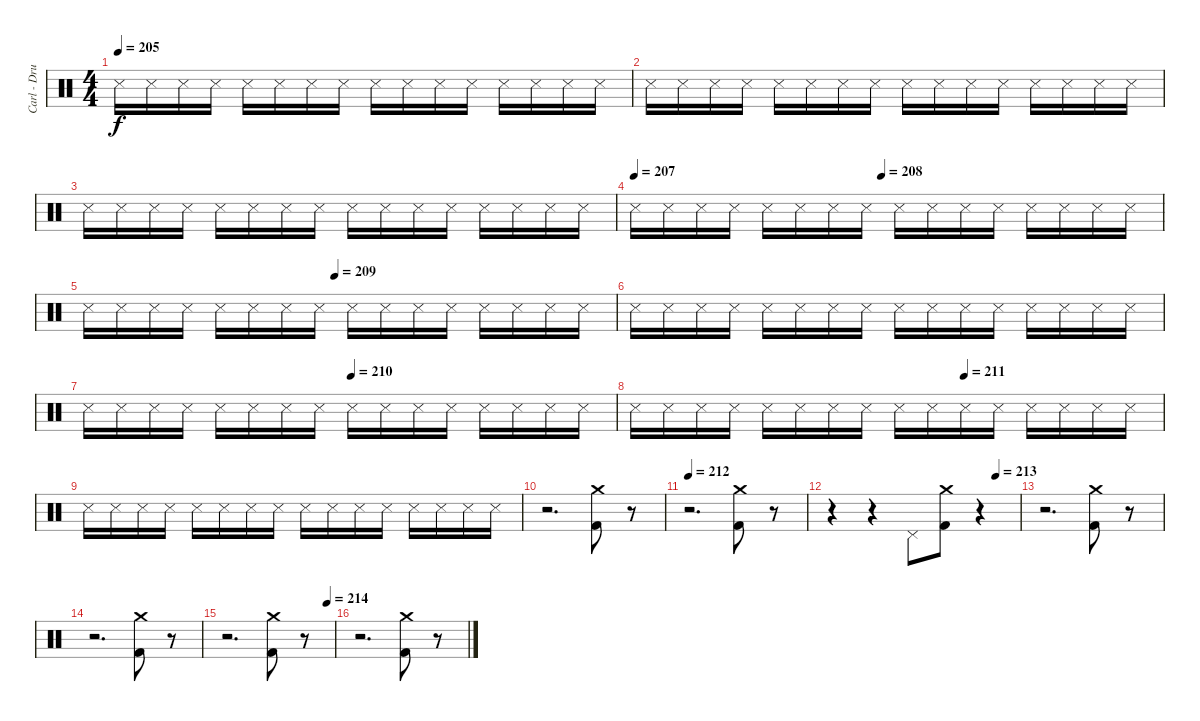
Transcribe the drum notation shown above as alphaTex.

\track ("Carl - Drums" "Carl - Dru") {instrument percussion}
\staff {score}
\articulation defaults
\ts (4 4)
\tempo 205
\clef neutral
\ks c "Metronome (hit)".16{dy f} "Metronome (hit)".16 "Metronome (hit)".16 "Metronome (hit)".16 "Metronome (hit)".16 "Metronome (hit)".16 "Metronome (hit)".16 "Metronome (hit)".16 "Metronome (hit)".16 "Metronome (hit)".16 "Metronome (hit)".16 "Metronome (hit)".16 "Metronome (hit)".16 "Metronome (hit)".16 "Metronome (hit)".16 "Metronome (hit)".16
|
"Metronome (hit)".16 "Metronome (hit)".16 "Metronome (hit)".16 "Metronome (hit)".16 "Metronome (hit)".16 "Metronome (hit)".16 "Metronome (hit)".16 "Metronome (hit)".16 "Metronome (hit)".16 "Metronome (hit)".16 "Metronome (hit)".16 "Metronome (hit)".16 "Metronome (hit)".16 "Metronome (hit)".16 "Metronome (hit)".16 "Metronome (hit)".16 |
"Metronome (hit)".16 "Metronome (hit)".16 "Metronome (hit)".16 "Metronome (hit)".16 "Metronome (hit)".16 "Metronome (hit)".16 "Metronome (hit)".16 "Metronome (hit)".16 "Metronome (hit)".16 "Metronome (hit)".16 "Metronome (hit)".16 "Metronome (hit)".16 "Metronome (hit)".16 "Metronome (hit)".16 "Metronome (hit)".16 "Metronome (hit)".16 |
\tempo 207
\tempo (208 0.46875)
"Metronome (hit)".16 "Metronome (hit)".16 "Metronome (hit)".16 "Metronome (hit)".16 "Metronome (hit)".16 "Metronome (hit)".16 "Metronome (hit)".16 "Metronome (hit)".16 "Metronome (hit)".16 "Metronome (hit)".16 "Metronome (hit)".16 "Metronome (hit)".16 "Metronome (hit)".16 "Metronome (hit)".16 "Metronome (hit)".16 "Metronome (hit)".16 |
\tempo (209 0.46875)
"Metronome (hit)".16 "Metronome (hit)".16 "Metronome (hit)".16 "Metronome (hit)".16 "Metronome (hit)".16 "Metronome (hit)".16 "Metronome (hit)".16 "Metronome (hit)".16 "Metronome (hit)".16 "Metronome (hit)".16 "Metronome (hit)".16 "Metronome (hit)".16 "Metronome (hit)".16 "Metronome (hit)".16 "Metronome (hit)".16 "Metronome (hit)".16 |
"Metronome (hit)".16 "Metronome (hit)".16 "Metronome (hit)".16 "Metronome (hit)".16 "Metronome (hit)".16 "Metronome (hit)".16 "Metronome (hit)".16 "Metronome (hit)".16 "Metronome (hit)".16 "Metronome (hit)".16 "Metronome (hit)".16 "Metronome (hit)".16 "Metronome (hit)".16 "Metronome (hit)".16 "Metronome (hit)".16 "Metronome (hit)".16 |
\tempo (210 0.5)
"Metronome (hit)".16 "Metronome (hit)".16 "Metronome (hit)".16 "Metronome (hit)".16 "Metronome (hit)".16 "Metronome (hit)".16 "Metronome (hit)".16 "Metronome (hit)".16 "Metronome (hit)".16 "Metronome (hit)".16 "Metronome (hit)".16 "Metronome (hit)".16 "Metronome (hit)".16 "Metronome (hit)".16 "Metronome (hit)".16 "Metronome (hit)".16 |
\tempo (211 0.625)
"Metronome (hit)".16 "Metronome (hit)".16 "Metronome (hit)".16 "Metronome (hit)".16 "Metronome (hit)".16 "Metronome (hit)".16 "Metronome (hit)".16 "Metronome (hit)".16 "Metronome (hit)".16 "Metronome (hit)".16 "Metronome (hit)".16 "Metronome (hit)".16 "Metronome (hit)".16 "Metronome (hit)".16 "Metronome (hit)".16 "Metronome (hit)".16 |
"Metronome (hit)".16 "Metronome (hit)".16 "Metronome (hit)".16 "Metronome (hit)".16 "Metronome (hit)".16 "Metronome (hit)".16 "Metronome (hit)".16 "Metronome (hit)".16 "Metronome (hit)".16 "Metronome (hit)".16 "Metronome (hit)".16 "Metronome (hit)".16 "Metronome (hit)".16 "Metronome (hit)".16 "Metronome (hit)".16 "Metronome (hit)".16 |
r.2{d} ("Kick (hit) 2" "Crash medium (hit)").8 r.8 |
\tempo 212
r.2{d} ("Kick (hit) 2" "Crash medium (hit)").8 r.8 |
\tempo (213 0.875)
r.4 r.4 "Pedal Hi-Hat (hit)".8 ("Kick (hit) 2" "Crash medium (hit)").8 r.4 |
r.2{d} ("Kick (hit) 2" "Crash medium (hit)").8 r.8 |
r.2{d} ("Kick (hit) 2" "Crash medium (hit)").8 r.8 |
\tempo (214 0.9375)
r.2{d} ("Kick (hit) 2" "Crash medium (hit)").8 r.8 |
r.2{d} ("Kick (hit) 2" "Crash medium (hit)").8 r.8
